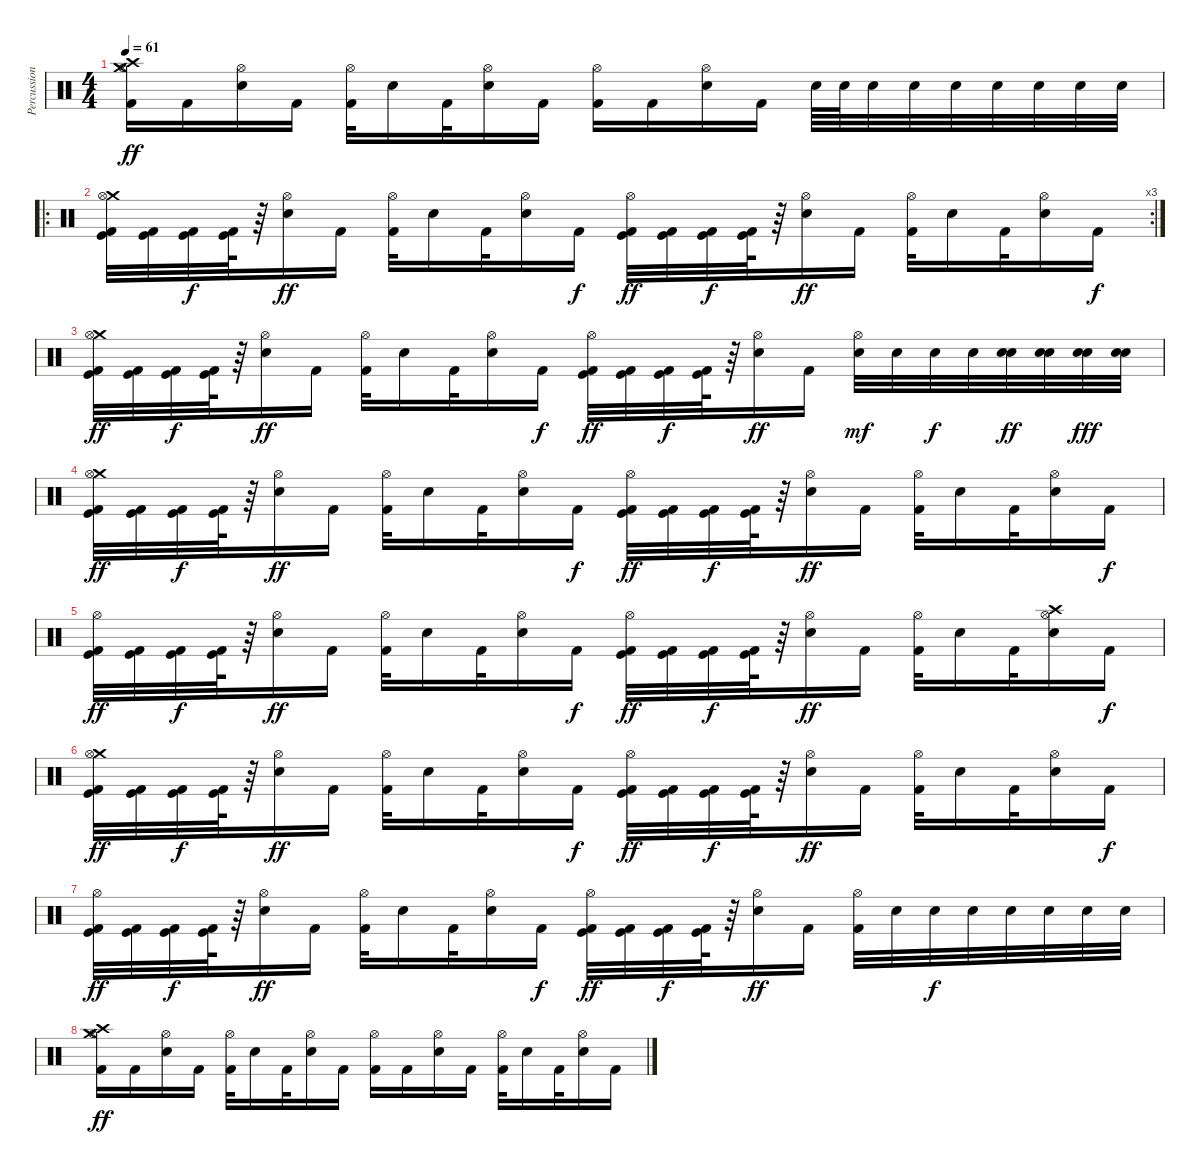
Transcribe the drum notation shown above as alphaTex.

\track ("Percussion" "Percussion") {solo instrument percussion}
\staff {score}
\articulation defaults
\ts (4 4)
\tempo 61
\clef neutral
\ks c
("Crash medium (hit)" "Hi-Hat (open)" "Crash high (hit)" "Kick (hit) 2").16{dy ff} "Kick (hit) 2".16 ("Hi-Hat (open)" "Electric Snare (hit)").16 "Kick (hit) 2".16 ("Hi-Hat (open)" "Kick (hit) 2").32 "Electric Snare (hit)".16 "Kick (hit) 2".32 ("Hi-Hat (open)" "Electric Snare (hit)").16 "Kick (hit) 2".16 ("Hi-Hat (open)" "Kick (hit) 2").16 "Kick (hit) 2".16 ("Hi-Hat (open)" "Electric Snare (hit)").16 "Kick (hit) 2".16 "Electric Snare (hit)".64 "Electric Snare (hit)".64 "Electric Snare (hit)".32 "Electric Snare (hit)".32 "Electric Snare (hit)".32 "Electric Snare (hit)".32 "Electric Snare (hit)".32 "Electric Snare (hit)".32 "Electric Snare (hit)".32 |
\ro
\rc 3
("Crash medium (hit)" "Hi-Hat (open)" "Kick (hit)" "Kick (hit) 2").32 ("Kick (hit)" "Kick (hit) 2").32 ("Kick (hit)" "Kick (hit) 2").32{dy f} ("Kick (hit)" "Kick (hit) 2").64 r.64 ("Hi-Hat (open)" "Electric Snare (hit)").16{dy ff} "Kick (hit) 2".16 ("Hi-Hat (open)" "Kick (hit) 2").32 "Electric Snare (hit)".16 "Kick (hit) 2".32 ("Hi-Hat (open)" "Electric Snare (hit)").16 "Kick (hit) 2".16{dy f} ("Hi-Hat (open)" "Kick (hit)" "Kick (hit) 2").32{dy ff} ("Kick (hit)" "Kick (hit) 2").32 ("Kick (hit)" "Kick (hit) 2").32{dy f} ("Kick (hit)" "Kick (hit) 2").64 r.64 ("Hi-Hat (open)" "Electric Snare (hit)").16{dy ff} "Kick (hit) 2".16 ("Hi-Hat (open)" "Kick (hit) 2").32 "Electric Snare (hit)".16 "Kick (hit) 2".32 ("Hi-Hat (open)" "Electric Snare (hit)").16 "Kick (hit) 2".16{dy f} |
("Crash medium (hit)" "Hi-Hat (open)" "Kick (hit)" "Kick (hit) 2").32{dy ff} ("Kick (hit)" "Kick (hit) 2").32 ("Kick (hit)" "Kick (hit) 2").32{dy f} ("Kick (hit)" "Kick (hit) 2").64 r.64 ("Hi-Hat (open)" "Electric Snare (hit)").16{dy ff} "Kick (hit) 2".16 ("Hi-Hat (open)" "Kick (hit) 2").32 "Electric Snare (hit)".16 "Kick (hit) 2".32 ("Hi-Hat (open)" "Electric Snare (hit)").16 "Kick (hit) 2".16{dy f} ("Hi-Hat (open)" "Kick (hit)" "Kick (hit) 2").32{dy ff} ("Kick (hit)" "Kick (hit) 2").32 ("Kick (hit)" "Kick (hit) 2").32{dy f} ("Kick (hit)" "Kick (hit) 2").64 r.64 ("Hi-Hat (open)" "Electric Snare (hit)").16{dy ff} "Kick (hit) 2".16 ("Hi-Hat (open)" "Electric Snare (hit)").32{dy mf} "Electric Snare (hit)".32 "Electric Snare (hit)".32{dy f} "Electric Snare (hit)".32 ("Electric Snare (hit)" "Electric Snare (hit)").32{dy ff} ("Electric Snare (hit)" "Electric Snare (hit)").32 ("Electric Snare (hit)" "Electric Snare (hit)").32{dy fff} ("Electric Snare (hit)" "Electric Snare (hit)").32 |
("Crash medium (hit)" "Hi-Hat (open)" "Kick (hit)" "Kick (hit) 2").32{dy ff} ("Kick (hit)" "Kick (hit) 2").32 ("Kick (hit)" "Kick (hit) 2").32{dy f} ("Kick (hit)" "Kick (hit) 2").64 r.64 ("Hi-Hat (open)" "Electric Snare (hit)").16{dy ff} "Kick (hit) 2".16 ("Hi-Hat (open)" "Kick (hit) 2").32 "Electric Snare (hit)".16 "Kick (hit) 2".32 ("Hi-Hat (open)" "Electric Snare (hit)").16 "Kick (hit) 2".16{dy f} ("Hi-Hat (open)" "Kick (hit)" "Kick (hit) 2").32{dy ff} ("Kick (hit)" "Kick (hit) 2").32 ("Kick (hit)" "Kick (hit) 2").32{dy f} ("Kick (hit)" "Kick (hit) 2").64 r.64 ("Hi-Hat (open)" "Electric Snare (hit)").16{dy ff} "Kick (hit) 2".16 ("Hi-Hat (open)" "Kick (hit) 2").32 "Electric Snare (hit)".16 "Kick (hit) 2".32 ("Hi-Hat (open)" "Electric Snare (hit)").16 "Kick (hit) 2".16{dy f} |
("Hi-Hat (open)" "Kick (hit)" "Kick (hit) 2").32{dy ff} ("Kick (hit)" "Kick (hit) 2").32 ("Kick (hit)" "Kick (hit) 2").32{dy f} ("Kick (hit)" "Kick (hit) 2").64 r.64 ("Hi-Hat (open)" "Electric Snare (hit)").16{dy ff} "Kick (hit) 2".16 ("Hi-Hat (open)" "Kick (hit) 2").32 "Electric Snare (hit)".16 "Kick (hit) 2".32 ("Hi-Hat (open)" "Electric Snare (hit)").16 "Kick (hit) 2".16{dy f} ("Hi-Hat (open)" "Kick (hit)" "Kick (hit) 2").32{dy ff} ("Kick (hit)" "Kick (hit) 2").32 ("Kick (hit)" "Kick (hit) 2").32{dy f} ("Kick (hit)" "Kick (hit) 2").64 r.64 ("Hi-Hat (open)" "Electric Snare (hit)").16{dy ff} "Kick (hit) 2".16 ("Hi-Hat (open)" "Kick (hit) 2").32 "Electric Snare (hit)".16 "Kick (hit) 2".32 ("Crash high (hit)" "Hi-Hat (open)" "Electric Snare (hit)").16 "Kick (hit) 2".16{dy f} |
("Crash medium (hit)" "Hi-Hat (open)" "Kick (hit)" "Kick (hit) 2").32{dy ff} ("Kick (hit)" "Kick (hit) 2").32 ("Kick (hit)" "Kick (hit) 2").32{dy f} ("Kick (hit)" "Kick (hit) 2").64 r.64 ("Hi-Hat (open)" "Electric Snare (hit)").16{dy ff} "Kick (hit) 2".16 ("Hi-Hat (open)" "Kick (hit) 2").32 "Electric Snare (hit)".16 "Kick (hit) 2".32 ("Hi-Hat (open)" "Electric Snare (hit)").16 "Kick (hit) 2".16{dy f} ("Hi-Hat (open)" "Kick (hit)" "Kick (hit) 2").32{dy ff} ("Kick (hit)" "Kick (hit) 2").32 ("Kick (hit)" "Kick (hit) 2").32{dy f} ("Kick (hit)" "Kick (hit) 2").64 r.64 ("Hi-Hat (open)" "Electric Snare (hit)").16{dy ff} "Kick (hit) 2".16 ("Hi-Hat (open)" "Kick (hit) 2").32 "Electric Snare (hit)".16 "Kick (hit) 2".32 ("Hi-Hat (open)" "Electric Snare (hit)").16 "Kick (hit) 2".16{dy f} |
("Hi-Hat (open)" "Kick (hit)" "Kick (hit) 2").32{dy ff} ("Kick (hit)" "Kick (hit) 2").32 ("Kick (hit)" "Kick (hit) 2").32{dy f} ("Kick (hit)" "Kick (hit) 2").64 r.64 ("Hi-Hat (open)" "Electric Snare (hit)").16{dy ff} "Kick (hit) 2".16 ("Hi-Hat (open)" "Kick (hit) 2").32 "Electric Snare (hit)".16 "Kick (hit) 2".32 ("Hi-Hat (open)" "Electric Snare (hit)").16 "Kick (hit) 2".16{dy f} ("Hi-Hat (open)" "Kick (hit)" "Kick (hit) 2").32{dy ff} ("Kick (hit)" "Kick (hit) 2").32 ("Kick (hit)" "Kick (hit) 2").32{dy f} ("Kick (hit)" "Kick (hit) 2").64 r.64 ("Hi-Hat (open)" "Electric Snare (hit)").16{dy ff} "Kick (hit) 2".16 ("Hi-Hat (open)" "Kick (hit) 2").32 "Electric Snare (hit)".32 "Electric Snare (hit)".32{dy f} "Electric Snare (hit)".32 "Electric Snare (hit)".32 "Electric Snare (hit)".32 "Electric Snare (hit)".32 "Electric Snare (hit)".32 |
("Crash medium (hit)" "Hi-Hat (open)" "Crash high (hit)" "Kick (hit) 2").16{dy ff} "Kick (hit) 2".16 ("Hi-Hat (open)" "Electric Snare (hit)").16 "Kick (hit) 2".16 ("Hi-Hat (open)" "Kick (hit) 2").32 "Electric Snare (hit)".16 "Kick (hit) 2".32 ("Hi-Hat (open)" "Electric Snare (hit)").16 "Kick (hit) 2".16 ("Hi-Hat (open)" "Kick (hit) 2").16 "Kick (hit) 2".16 ("Hi-Hat (open)" "Electric Snare (hit)").16 "Kick (hit) 2".16 ("Hi-Hat (open)" "Kick (hit) 2").32 "Electric Snare (hit)".16 "Kick (hit) 2".32 ("Hi-Hat (open)" "Electric Snare (hit)").16 "Kick (hit) 2".16
